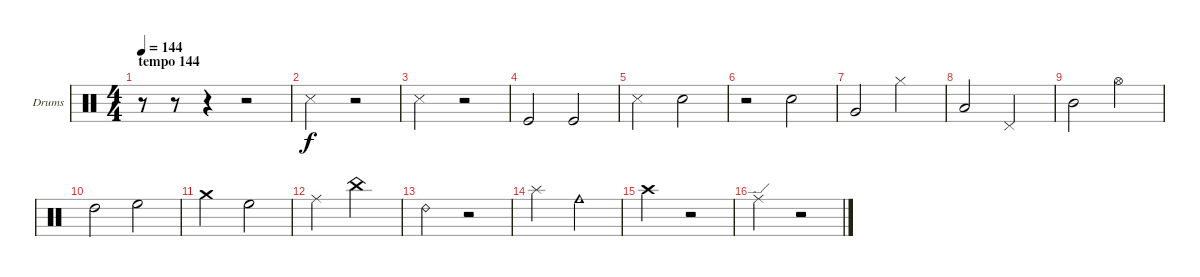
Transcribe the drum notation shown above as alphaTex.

\bracketExtendMode groupsimilarinstruments
\firstSystemTrackNameOrientation horizontal
\otherSystemsTrackNameOrientation horizontal
\track ("Drumkit" "Drums") {instrument percussion}
\staff {score}
\articulation defaults
\ts (4 4)
\beaming (8 2 2 2 2)
\section ("" "tempo 144")
\tempo 144
\clef neutral
\ks c
r.8{dy f} r.8 r.4 r.2 |
"Snare (side stick) 3".2 r.2 |
"Snare (side stick) 3".2 r.2 |
"Kick (hit)".2 "Kick (hit)".2 |
"Snare (side stick) 3".2 "Snare (hit) 2".2 |
r.2 "Snare (hit) 2".2 |
"Very Low Tom (hit)".2 "Hi-Hat (closed)".2 |
"Low Tom (hit)".2 "Pedal Hi-Hat (hit)".2 |
"Mid Tom (hit)".2 "Hi-Hat (open)".2 |
"High Tom (hit)".2 "High Floor Tom (hit)".2 |
"Crash medium (hit)".2 "High Floor Tom (hit)".2 |
"Ride (middle)".2 "China (hit)".2 |
"Ride (bell) 2".2 r.2 |
"Splash (hit)".2 "Cowbell medium (hit)".2 |
"Crash high (hit)".2 r.2 |
"Ride (edge)".2 r.2
